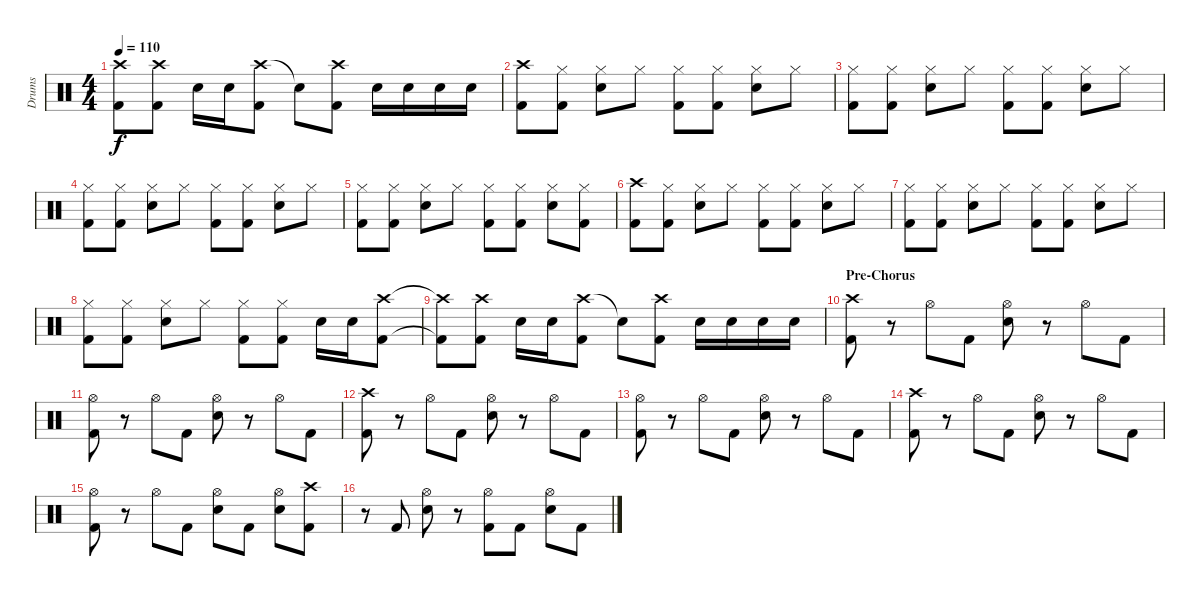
\track ("Drums" "Drums") {instrument percussion}
\staff {score}
\articulation defaults
\ts (4 4)
\tempo 110
\clef neutral
\ks c
("Crash high (hit)"{t} "Kick (hit) 2"{t}).8{dy f} ("Crash high (hit)" "Kick (hit) 2").8 "Electric Snare (hit)".16 "Electric Snare (hit)".16 ("Crash high (hit)" "Kick (hit) 2").8 "Snare (hit)"{t}.8 ("Crash high (hit)" "Kick (hit) 2").8 "Electric Snare (hit)".16 "Electric Snare (hit)".16 "Electric Snare (hit)".16 "Electric Snare (hit)".16 |
("Crash high (hit)" "Kick (hit) 2").8 ("Hi-Hat (closed)" "Kick (hit) 2").8 ("Hi-Hat (closed)" "Electric Snare (hit)").8 "Hi-Hat (closed)".8 ("Hi-Hat (closed)" "Kick (hit) 2").8 ("Hi-Hat (closed)" "Kick (hit) 2").8 ("Hi-Hat (closed)" "Electric Snare (hit)").8 "Hi-Hat (closed)".8 |
("Hi-Hat (closed)" "Kick (hit) 2").8 ("Hi-Hat (closed)" "Kick (hit) 2").8 ("Hi-Hat (closed)" "Electric Snare (hit)").8 "Hi-Hat (closed)".8 ("Hi-Hat (closed)" "Kick (hit) 2").8 ("Hi-Hat (closed)" "Kick (hit) 2").8 ("Hi-Hat (closed)" "Electric Snare (hit)").8 "Hi-Hat (closed)".8 |
("Hi-Hat (closed)" "Kick (hit) 2").8 ("Hi-Hat (closed)" "Kick (hit) 2").8 ("Hi-Hat (closed)" "Electric Snare (hit)").8 "Hi-Hat (closed)".8 ("Hi-Hat (closed)" "Kick (hit) 2").8 ("Hi-Hat (closed)" "Kick (hit) 2").8 ("Hi-Hat (closed)" "Electric Snare (hit)").8 "Hi-Hat (closed)".8 |
("Hi-Hat (closed)" "Kick (hit) 2").8 ("Hi-Hat (closed)" "Kick (hit) 2").8 ("Hi-Hat (closed)" "Electric Snare (hit)").8 "Hi-Hat (closed)".8 ("Hi-Hat (closed)" "Kick (hit) 2").8 ("Hi-Hat (closed)" "Kick (hit) 2").8 ("Hi-Hat (closed)" "Electric Snare (hit)").8 ("Hi-Hat (closed)" "Kick (hit) 2").8 |
("Crash high (hit)" "Kick (hit) 2").8 ("Hi-Hat (closed)" "Kick (hit) 2").8 ("Hi-Hat (closed)" "Electric Snare (hit)").8 "Hi-Hat (closed)".8 ("Hi-Hat (closed)" "Kick (hit) 2").8 ("Hi-Hat (closed)" "Kick (hit) 2").8 ("Hi-Hat (closed)" "Electric Snare (hit)").8 "Hi-Hat (closed)".8 |
("Hi-Hat (closed)" "Kick (hit) 2").8 ("Hi-Hat (closed)" "Kick (hit) 2").8 ("Hi-Hat (closed)" "Electric Snare (hit)").8 "Hi-Hat (closed)".8 ("Hi-Hat (closed)" "Kick (hit) 2").8 ("Hi-Hat (closed)" "Kick (hit) 2").8 ("Hi-Hat (closed)" "Electric Snare (hit)").8 "Hi-Hat (closed)".8 |
("Hi-Hat (closed)" "Kick (hit) 2").8 ("Hi-Hat (closed)" "Kick (hit) 2").8 ("Hi-Hat (closed)" "Electric Snare (hit)").8 "Hi-Hat (closed)".8 ("Hi-Hat (closed)" "Kick (hit) 2").8 ("Hi-Hat (closed)" "Kick (hit) 2").8 "Electric Snare (hit)".16 "Electric Snare (hit)".16 ("Crash high (hit)" "Kick (hit) 2").8 |
("Crash high (hit)"{t} "Kick (hit) 2"{t}).8 ("Crash high (hit)" "Kick (hit) 2").8 "Electric Snare (hit)".16 "Electric Snare (hit)".16 ("Crash high (hit)" "Kick (hit) 2").8 "Snare (hit)"{t}.8 ("Crash high (hit)" "Kick (hit) 2").8 "Electric Snare (hit)".16 "Electric Snare (hit)".16 "Electric Snare (hit)".16 "Electric Snare (hit)".16 |
\section ("" "Pre-Chorus")
("Crash high (hit)" "Kick (hit) 2").8 r.8 "Hi-Hat (open)".8 "Kick (hit) 2".8 ("Hi-Hat (open)" "Electric Snare (hit)").8 r.8 "Hi-Hat (open)".8 "Kick (hit) 2".8 |
("Hi-Hat (open)" "Kick (hit) 2").8 r.8 "Hi-Hat (open)".8 "Kick (hit) 2".8 ("Hi-Hat (open)" "Electric Snare (hit)").8 r.8 "Hi-Hat (open)".8 "Kick (hit) 2".8 |
("Crash high (hit)" "Kick (hit) 2").8 r.8 "Hi-Hat (open)".8 "Kick (hit) 2".8 ("Hi-Hat (open)" "Electric Snare (hit)").8 r.8 "Hi-Hat (open)".8 "Kick (hit) 2".8 |
("Hi-Hat (open)" "Kick (hit) 2").8 r.8 "Hi-Hat (open)".8 "Kick (hit) 2".8 ("Hi-Hat (open)" "Electric Snare (hit)").8 r.8 "Hi-Hat (open)".8 "Kick (hit) 2".8 |
("Crash high (hit)" "Kick (hit) 2").8 r.8 "Hi-Hat (open)".8 "Kick (hit) 2".8 ("Hi-Hat (open)" "Electric Snare (hit)").8 r.8 "Hi-Hat (open)".8 "Kick (hit) 2".8 |
("Hi-Hat (open)" "Kick (hit) 2").8 r.8 "Hi-Hat (open)".8 "Kick (hit) 2".8 ("Hi-Hat (open)" "Electric Snare (hit)").8 "Kick (hit) 2".8 ("Hi-Hat (open)" "Electric Snare (hit)").8 ("Crash high (hit)" "Kick (hit) 2").8 |
r.8 "Kick (hit) 2".8 ("Hi-Hat (open)" "Electric Snare (hit)").8 r.8 ("Hi-Hat (open)" "Kick (hit) 2").8 "Kick (hit) 2".8 ("Hi-Hat (open)" "Electric Snare (hit)").8 "Kick (hit) 2".8
